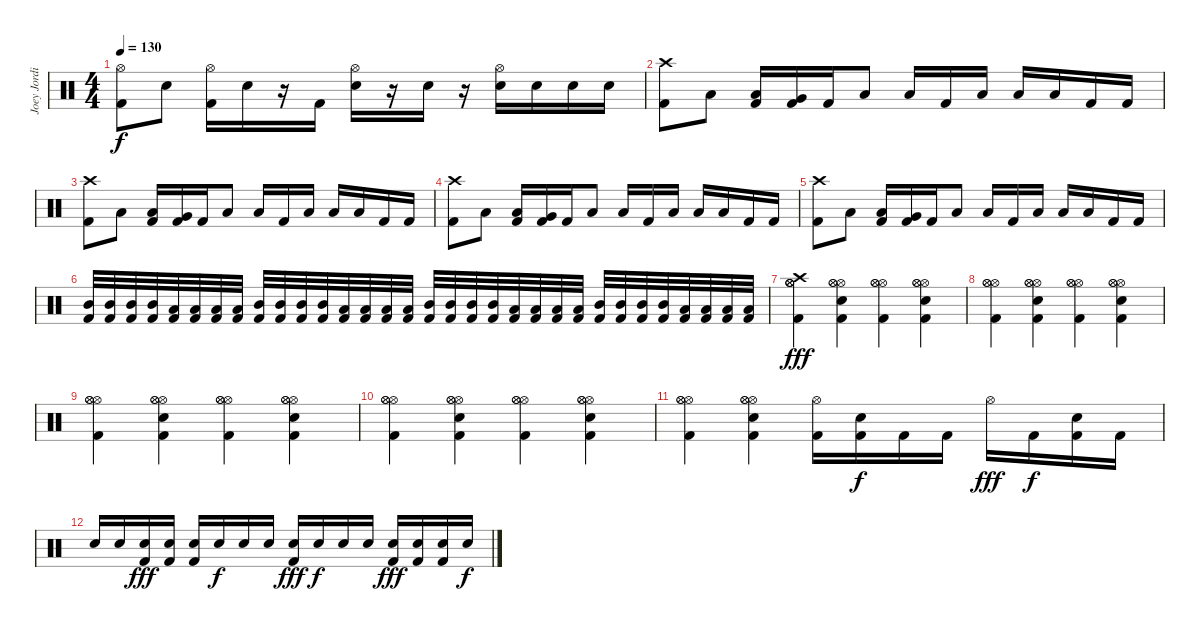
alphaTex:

\track ("Joey Jordison" "Joey Jordi") {instrument percussion}
\staff {score}
\articulation defaults
\ts (4 4)
\tempo 130
\clef neutral
\ks c
("Hi-Hat (open)" "Kick (hit) 2").8{dy f} "Electric Snare (hit)".8 ("Hi-Hat (open)" "Kick (hit) 2").16 "Electric Snare (hit)".16 r.16 "Kick (hit) 2".16 ("Hi-Hat (open)" "Electric Snare (hit)").16 r.16 "Electric Snare (hit)".16 r.16 ("Hi-Hat (open)" "Electric Snare (hit)").16 "Electric Snare (hit)".16 "Electric Snare (hit)".16 "Electric Snare (hit)".16 |
("Crash high (hit)" "Kick (hit) 2").8 "Low Tom (hit)".8 ("Low Tom (hit)" "Kick (hit) 2").16 ("Very Low Tom (hit)" "Kick (hit) 2").16 "Kick (hit) 2".16 "Low Tom (hit)".8 "Low Tom (hit)".16 "Kick (hit) 2".16 "Low Floor Tom (hit)".16 "Low Floor Tom (hit)".16 "Low Floor Tom (hit)".16 "Kick (hit) 2".16 "Kick (hit) 2".16 |
("Crash high (hit)" "Kick (hit) 2").8 "Low Tom (hit)".8 ("Low Tom (hit)" "Kick (hit) 2").16 ("Very Low Tom (hit)" "Kick (hit) 2").16 "Kick (hit) 2".16 "Low Tom (hit)".8 "Low Tom (hit)".16 "Kick (hit) 2".16 "Low Floor Tom (hit)".16 "Low Floor Tom (hit)".16 "Low Floor Tom (hit)".16 "Kick (hit) 2".16 "Kick (hit) 2".16 |
("Crash high (hit)" "Kick (hit) 2").8 "Low Tom (hit)".8 ("Low Tom (hit)" "Kick (hit) 2").16 ("Very Low Tom (hit)" "Kick (hit) 2").16 "Kick (hit) 2".16 "Low Tom (hit)".8 "Low Tom (hit)".16 "Kick (hit) 2".16 "Low Floor Tom (hit)".16 "Low Floor Tom (hit)".16 "Low Floor Tom (hit)".16 "Kick (hit) 2".16 "Kick (hit) 2".16 |
("Crash high (hit)" "Kick (hit) 2").8 "Low Tom (hit)".8 ("Low Tom (hit)" "Kick (hit) 2").16 ("Very Low Tom (hit)" "Kick (hit) 2").16 "Kick (hit) 2".16 "Low Tom (hit)".8 "Low Tom (hit)".16 "Kick (hit) 2".16 "Low Floor Tom (hit)".16 "Low Floor Tom (hit)".16 "Low Floor Tom (hit)".16 "Kick (hit) 2".16 "Kick (hit) 2".16 |
("Mid Tom (hit)" "Kick (hit) 2").32 ("Mid Tom (hit)" "Kick (hit) 2").32 ("Mid Tom (hit)" "Kick (hit) 2").32 ("Mid Tom (hit)" "Kick (hit) 2").32 ("Low Tom (hit)" "Kick (hit) 2").32 ("Low Tom (hit)" "Kick (hit) 2").32 ("Low Tom (hit)" "Kick (hit) 2").32 ("Low Tom (hit)" "Kick (hit) 2").32 ("Mid Tom (hit)" "Kick (hit) 2").32 ("Mid Tom (hit)" "Kick (hit) 2").32 ("Mid Tom (hit)" "Kick (hit) 2").32 ("Mid Tom (hit)" "Kick (hit) 2").32 ("Low Tom (hit)" "Kick (hit) 2").32 ("Low Tom (hit)" "Kick (hit) 2").32 ("Low Tom (hit)" "Kick (hit) 2").32 ("Low Tom (hit)" "Kick (hit) 2").32 ("Mid Tom (hit)" "Kick (hit) 2").32 ("Mid Tom (hit)" "Kick (hit) 2").32 ("Mid Tom (hit)" "Kick (hit) 2").32 ("Mid Tom (hit)" "Kick (hit) 2").32 ("Low Tom (hit)" "Kick (hit) 2").32 ("Low Tom (hit)" "Kick (hit) 2").32 ("Low Tom (hit)" "Kick (hit) 2").32 ("Low Tom (hit)" "Kick (hit) 2").32 ("Mid Tom (hit)" "Kick (hit) 2").32 ("Mid Tom (hit)" "Kick (hit) 2").32 ("Mid Tom (hit)" "Kick (hit) 2").32 ("Mid Tom (hit)" "Kick (hit) 2").32 ("Low Tom (hit)" "Kick (hit) 2").32 ("Low Tom (hit)" "Kick (hit) 2").32 ("Low Tom (hit)" "Kick (hit) 2").32 ("Low Tom (hit)" "Kick (hit) 2").32 |
("Hi-Hat (open)" "Hi-Hat (open)" "Hi-Hat (open)" "Crash high (hit)" "Kick (hit) 2").4{dy fff} ("Hi-Hat (open)" "Hi-Hat (open)" "Hi-Hat (open)" "Electric Snare (hit)" "Kick (hit) 2").4 ("Hi-Hat (open)" "Hi-Hat (open)" "Hi-Hat (open)" "Kick (hit) 2").4 ("Hi-Hat (open)" "Hi-Hat (open)" "Hi-Hat (open)" "Electric Snare (hit)" "Kick (hit) 2").4 |
("Hi-Hat (open)" "Hi-Hat (open)" "Hi-Hat (open)" "Kick (hit) 2").4 ("Hi-Hat (open)" "Hi-Hat (open)" "Hi-Hat (open)" "Electric Snare (hit)" "Kick (hit) 2").4 ("Hi-Hat (open)" "Hi-Hat (open)" "Hi-Hat (open)" "Kick (hit) 2").4 ("Hi-Hat (open)" "Hi-Hat (open)" "Hi-Hat (open)" "Electric Snare (hit)" "Kick (hit) 2").4 |
("Hi-Hat (open)" "Hi-Hat (open)" "Hi-Hat (open)" "Kick (hit) 2").4 ("Hi-Hat (open)" "Hi-Hat (open)" "Hi-Hat (open)" "Electric Snare (hit)" "Kick (hit) 2").4 ("Hi-Hat (open)" "Hi-Hat (open)" "Hi-Hat (open)" "Kick (hit) 2").4 ("Hi-Hat (open)" "Hi-Hat (open)" "Hi-Hat (open)" "Electric Snare (hit)" "Kick (hit) 2").4 |
("Hi-Hat (open)" "Hi-Hat (open)" "Hi-Hat (open)" "Kick (hit) 2").4 ("Hi-Hat (open)" "Hi-Hat (open)" "Hi-Hat (open)" "Electric Snare (hit)" "Kick (hit) 2").4 ("Hi-Hat (open)" "Hi-Hat (open)" "Hi-Hat (open)" "Kick (hit) 2").4 ("Hi-Hat (open)" "Hi-Hat (open)" "Hi-Hat (open)" "Electric Snare (hit)" "Kick (hit) 2").4 |
("Hi-Hat (open)" "Hi-Hat (open)" "Hi-Hat (open)" "Kick (hit) 2").4 ("Hi-Hat (open)" "Hi-Hat (open)" "Hi-Hat (open)" "Electric Snare (hit)" "Kick (hit) 2").4 ("Hi-Hat (open)" "Kick (hit) 2").16 ("Electric Snare (hit)" "Kick (hit) 2").16{dy f} "Kick (hit) 2".16 "Kick (hit) 2".16 "Hi-Hat (open)".16{dy fff} "Kick (hit) 2".16{dy f} ("Electric Snare (hit)" "Kick (hit) 2").16 "Kick (hit) 2".16 |
"Snare (hit)".16 "Snare (hit)".16 ("Snare (hit)" "Kick (hit) 2").16{dy fff} ("Snare (hit)" "Kick (hit) 2").16 ("Snare (hit)" "Kick (hit) 2").16 "Snare (hit)".16{dy f} "Snare (hit)".16 "Snare (hit)".16 ("Snare (hit)" "Kick (hit) 2").16{dy fff} "Snare (hit)".16{dy f} "Snare (hit)".16 "Snare (hit)".16 ("Snare (hit)" "Kick (hit) 2").16{dy fff} ("Snare (hit)" "Kick (hit) 2").16 ("Snare (hit)" "Kick (hit) 2").16 "Snare (hit)".16{dy f}
